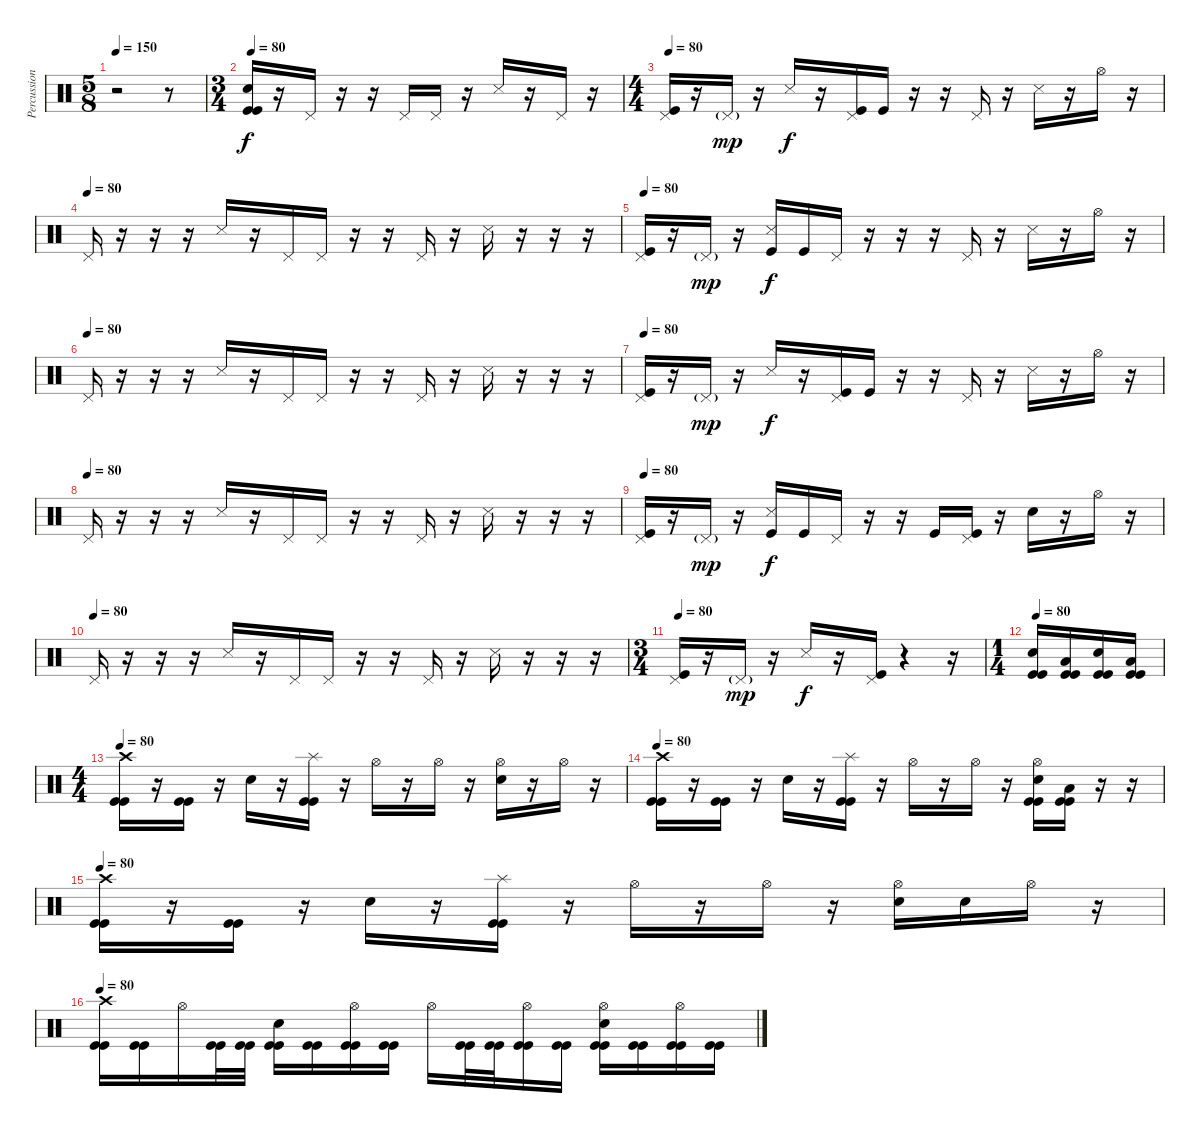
\track ("Percussions" "Percussion") {instrument percussion}
\staff {score}
\articulation defaults
\ts (5 8)
\tempo 150
\clef neutral
\ks c
r.2{dy f} r.8 |
\ts (3 4)
\tempo 80
("Electric Snare (hit)" "Kick (hit)" "Kick (hit)").16 r.16 "Pedal Hi-Hat (hit)".16 r.16 r.16 "Pedal Hi-Hat (hit)".16 "Pedal Hi-Hat (hit)".16 r.16 "Snare (side stick) 3".16 r.16 "Pedal Hi-Hat (hit)".16 r.16 |
\ts (4 4)
\tempo 80
("Pedal Hi-Hat (hit)" "Kick (hit)").16 r.16 "Pedal Hi-Hat (hit)"{g}.16{dy mp} r.16 "Snare (side stick) 3".16{dy f} r.16 ("Pedal Hi-Hat (hit)" "Kick (hit)").16 "Kick (hit)".16 r.16 r.16 "Pedal Hi-Hat (hit)".16 r.16 "Snare (side stick) 3".16 r.16 "Hi-Hat (open)".16 r.16 |
\tempo (80)
"Pedal Hi-Hat (hit)".16 r.16 r.16 r.16 "Snare (side stick) 3".16 r.16 "Pedal Hi-Hat (hit)".16 "Pedal Hi-Hat (hit)".16 r.16 r.16 "Pedal Hi-Hat (hit)".16 r.16 "Snare (side stick) 3".16 r.16 r.16 r.16 |
\tempo 80
("Pedal Hi-Hat (hit)" "Kick (hit)").16 r.16 "Pedal Hi-Hat (hit)"{g}.16{dy mp} r.16 ("Snare (side stick) 3" "Kick (hit)").16{dy f} "Kick (hit)".16 "Pedal Hi-Hat (hit)".16 r.16 r.16 r.16 "Pedal Hi-Hat (hit)".16 r.16 "Snare (side stick) 3".16 r.16 "Hi-Hat (open)".16 r.16 |
\tempo (80)
"Pedal Hi-Hat (hit)".16 r.16 r.16 r.16 "Snare (side stick) 3".16 r.16 "Pedal Hi-Hat (hit)".16 "Pedal Hi-Hat (hit)".16 r.16 r.16 "Pedal Hi-Hat (hit)".16 r.16 "Snare (side stick) 3".16 r.16 r.16 r.16 |
\tempo 80
("Pedal Hi-Hat (hit)" "Kick (hit)").16 r.16 "Pedal Hi-Hat (hit)"{g}.16{dy mp} r.16 "Snare (side stick) 3".16{dy f} r.16 ("Pedal Hi-Hat (hit)" "Kick (hit)").16 "Kick (hit)".16 r.16 r.16 "Pedal Hi-Hat (hit)".16 r.16 "Snare (side stick) 3".16 r.16 "Hi-Hat (open)".16 r.16 |
\tempo (80)
"Pedal Hi-Hat (hit)".16 r.16 r.16 r.16 "Snare (side stick) 3".16 r.16 "Pedal Hi-Hat (hit)".16 "Pedal Hi-Hat (hit)".16 r.16 r.16 "Pedal Hi-Hat (hit)".16 r.16 "Snare (side stick) 3".16 r.16 r.16 r.16 |
\tempo 80
("Pedal Hi-Hat (hit)" "Kick (hit)").16 r.16 "Pedal Hi-Hat (hit)"{g}.16{dy mp} r.16 ("Snare (side stick) 3" "Kick (hit)").16{dy f} "Kick (hit)".16 "Pedal Hi-Hat (hit)".16 r.16 r.16 "Kick (hit)".16 ("Pedal Hi-Hat (hit)" "Kick (hit)").16 r.16 "Electric Snare (hit)".16 r.16 "Hi-Hat (open)".16 r.16 |
\tempo (80)
"Pedal Hi-Hat (hit)".16 r.16 r.16 r.16 "Snare (side stick) 3".16 r.16 "Pedal Hi-Hat (hit)".16 "Pedal Hi-Hat (hit)".16 r.16 r.16 "Pedal Hi-Hat (hit)".16 r.16 "Snare (side stick) 3".16 r.16 r.16 r.16 |
\ts (3 4)
\tempo 80
("Pedal Hi-Hat (hit)" "Kick (hit)").16 r.16 "Pedal Hi-Hat (hit)"{g}.16{dy mp} r.16 "Snare (side stick) 3".16{dy f} r.16 ("Pedal Hi-Hat (hit)" "Kick (hit)").16 r.4 r.16 |
\ts (1 4)
\tempo 80
("Electric Snare (hit)" "Kick (hit)" "Kick (hit)").16 ("Low Floor Tom (hit)" "Kick (hit)" "Kick (hit)").16 ("Electric Snare (hit)" "Kick (hit)" "Kick (hit)").16 ("Low Floor Tom (hit)" "Kick (hit)" "Kick (hit)").16 |
\ts (4 4)
\tempo 80
("Crash high (hit)" "Kick (hit)" "Kick (hit)").16 r.16 ("Kick (hit)" "Kick (hit)").16 r.16 "Electric Snare (hit)".16 r.16 ("Splash (hit)" "Kick (hit)" "Kick (hit)").16 r.16 "Hi-Hat (open)".16 r.16 "Hi-Hat (open)".16 r.16 ("Hi-Hat (open)" "Electric Snare (hit)").16 r.16 "Hi-Hat (open)".16 r.16 |
\tempo 80
("Crash high (hit)" "Kick (hit)" "Kick (hit)").16 r.16 ("Kick (hit)" "Kick (hit)").16 r.16 "Electric Snare (hit)".16 r.16 ("Splash (hit)" "Kick (hit)" "Kick (hit)").16 r.16 "Hi-Hat (open)".16 r.16 "Hi-Hat (open)".16 r.16 ("Hi-Hat (open)" "Electric Snare (hit)" "Kick (hit)" "Kick (hit)").16 ("Low Floor Tom (hit)" "Kick (hit)" "Kick (hit)").16 r.16 r.16 |
\tempo 80
("Crash high (hit)" "Kick (hit)" "Kick (hit)").16 r.16 ("Kick (hit)" "Kick (hit)").16 r.16 "Electric Snare (hit)".16 r.16 ("Splash (hit)" "Kick (hit)" "Kick (hit)").16 r.16 "Hi-Hat (open)".16 r.16 "Hi-Hat (open)".16 r.16 ("Hi-Hat (open)" "Electric Snare (hit)").16 "Electric Snare (hit)".16 "Hi-Hat (open)".16 r.16 |
\tempo 80
("Crash high (hit)" "Kick (hit)" "Kick (hit)").16 ("Kick (hit)" "Kick (hit)").16 "Hi-Hat (open)".16 ("Kick (hit)" "Kick (hit)").32 ("Kick (hit)" "Kick (hit)").32 ("Electric Snare (hit)" "Kick (hit)" "Kick (hit)").16 ("Kick (hit)" "Kick (hit)").16 ("Hi-Hat (open)" "Kick (hit)" "Kick (hit)").16 ("Kick (hit)" "Kick (hit)").16 "Hi-Hat (open)".16 ("Kick (hit)" "Kick (hit)").32 ("Kick (hit)" "Kick (hit)").32 ("Hi-Hat (open)" "Kick (hit)" "Kick (hit)").16 ("Kick (hit)" "Kick (hit)").16 ("Hi-Hat (open)" "Electric Snare (hit)" "Kick (hit)" "Kick (hit)").16 ("Kick (hit)" "Kick (hit)").16 ("Hi-Hat (open)" "Kick (hit)" "Kick (hit)").16 ("Kick (hit)" "Kick (hit)").16
